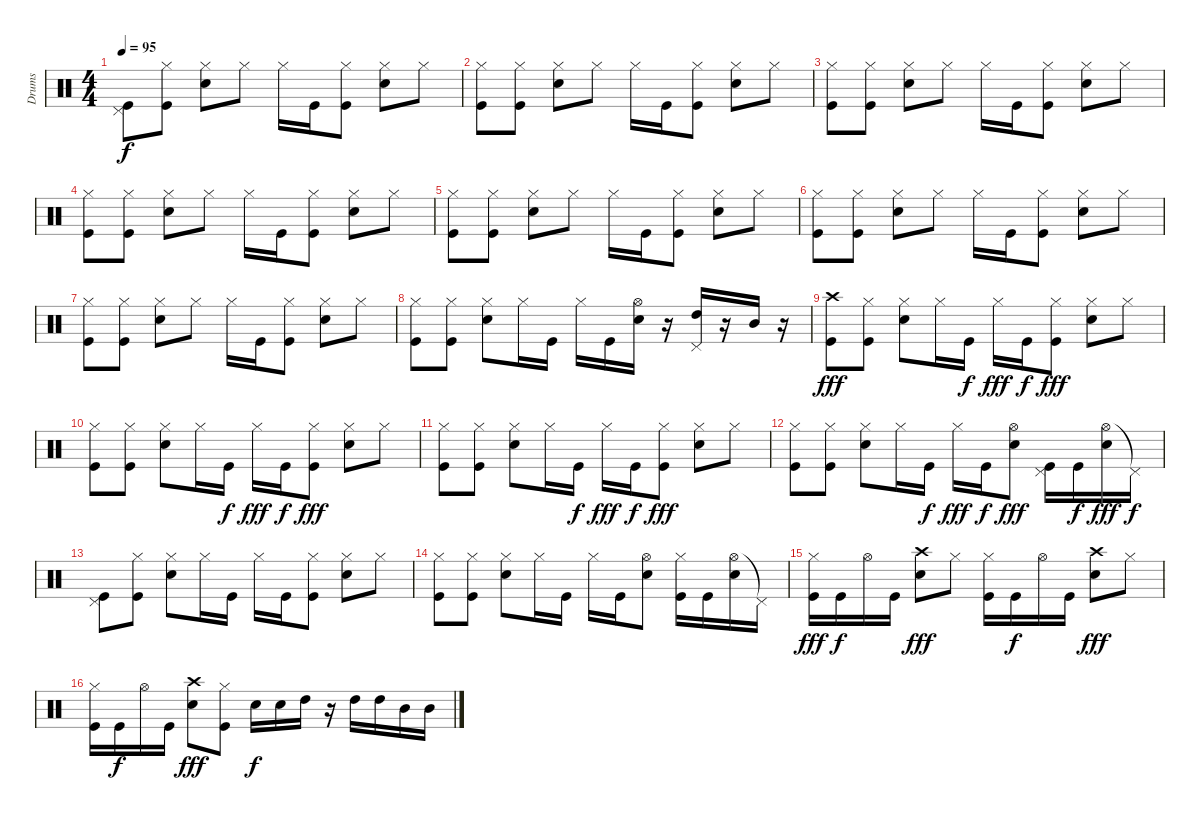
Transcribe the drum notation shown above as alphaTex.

\track ("Drums" "Drums") {instrument percussion}
\staff {score}
\articulation defaults
\ts (4 4)
\tempo 95
\clef neutral
\ks c
("Pedal Hi-Hat (hit)" "Kick (hit)").8{dy f} ("Hi-Hat (closed)" "Kick (hit)").8 ("Hi-Hat (closed)" "Electric Snare (hit)").8 "Hi-Hat (closed)".8 "Hi-Hat (closed)".16 "Kick (hit)".16 ("Hi-Hat (closed)" "Kick (hit)").8 ("Hi-Hat (closed)" "Electric Snare (hit)").8 "Hi-Hat (closed)".8 |
("Hi-Hat (closed)" "Kick (hit)").8 ("Hi-Hat (closed)" "Kick (hit)").8 ("Hi-Hat (closed)" "Electric Snare (hit)").8 "Hi-Hat (closed)".8 "Hi-Hat (closed)".16 "Kick (hit)".16 ("Hi-Hat (closed)" "Kick (hit)").8 ("Hi-Hat (closed)" "Electric Snare (hit)").8 "Hi-Hat (closed)".8 |
("Hi-Hat (closed)" "Kick (hit)").8 ("Hi-Hat (closed)" "Kick (hit)").8 ("Hi-Hat (closed)" "Electric Snare (hit)").8 "Hi-Hat (closed)".8 "Hi-Hat (closed)".16 "Kick (hit)".16 ("Hi-Hat (closed)" "Kick (hit)").8 ("Hi-Hat (closed)" "Electric Snare (hit)").8 "Hi-Hat (closed)".8 |
("Hi-Hat (closed)" "Kick (hit)").8 ("Hi-Hat (closed)" "Kick (hit)").8 ("Hi-Hat (closed)" "Electric Snare (hit)").8 "Hi-Hat (closed)".8 "Hi-Hat (closed)".16 "Kick (hit)".16 ("Hi-Hat (closed)" "Kick (hit)").8 ("Hi-Hat (closed)" "Electric Snare (hit)").8 "Hi-Hat (closed)".8 |
("Hi-Hat (closed)" "Kick (hit)").8 ("Hi-Hat (closed)" "Kick (hit)").8 ("Hi-Hat (closed)" "Electric Snare (hit)").8 "Hi-Hat (closed)".8 "Hi-Hat (closed)".16 "Kick (hit)".16 ("Hi-Hat (closed)" "Kick (hit)").8 ("Hi-Hat (closed)" "Electric Snare (hit)").8 "Hi-Hat (closed)".8 |
("Hi-Hat (closed)" "Kick (hit)").8 ("Hi-Hat (closed)" "Kick (hit)").8 ("Hi-Hat (closed)" "Electric Snare (hit)").8 "Hi-Hat (closed)".8 "Hi-Hat (closed)".16 "Kick (hit)".16 ("Hi-Hat (closed)" "Kick (hit)").8 ("Hi-Hat (closed)" "Electric Snare (hit)").8 "Hi-Hat (closed)".8 |
("Hi-Hat (closed)" "Kick (hit)").8 ("Hi-Hat (closed)" "Kick (hit)").8 ("Hi-Hat (closed)" "Electric Snare (hit)").8 "Hi-Hat (closed)".8 "Hi-Hat (closed)".16 "Kick (hit)".16 ("Hi-Hat (closed)" "Kick (hit)").8 ("Hi-Hat (closed)" "Electric Snare (hit)").8 "Hi-Hat (closed)".8 |
("Hi-Hat (closed)" "Kick (hit)").8 ("Hi-Hat (closed)" "Kick (hit)").8 ("Hi-Hat (closed)" "Electric Snare (hit)").8 "Hi-Hat (closed)".16 "Kick (hit)".16 "Hi-Hat (closed)".16 "Kick (hit)".16 ("Hi-Hat (open)" "Electric Snare (hit)").16 r.16 ("Pedal Hi-Hat (hit)" "High Tom (hit)").16 r.16 "Mid Tom (hit)".16 r.16 |
("Crash high (hit)" "Kick (hit)").8{dy fff} ("Hi-Hat (closed)" "Kick (hit)").8 ("Hi-Hat (closed)" "Electric Snare (hit)").8 "Hi-Hat (closed)".16 "Kick (hit)".16{dy f} "Hi-Hat (closed)".16{dy fff} "Kick (hit)".16{dy f} ("Hi-Hat (closed)" "Kick (hit)").8{dy fff} ("Hi-Hat (closed)" "Electric Snare (hit)").8 "Hi-Hat (closed)".8 |
("Hi-Hat (closed)" "Kick (hit)").8 ("Hi-Hat (closed)" "Kick (hit)").8 ("Hi-Hat (closed)" "Electric Snare (hit)").8 "Hi-Hat (closed)".16 "Kick (hit)".16{dy f} "Hi-Hat (closed)".16{dy fff} "Kick (hit)".16{dy f} ("Hi-Hat (closed)" "Kick (hit)").8{dy fff} ("Hi-Hat (closed)" "Electric Snare (hit)").8 "Hi-Hat (closed)".8 |
("Hi-Hat (closed)" "Kick (hit)").8 ("Hi-Hat (closed)" "Kick (hit)").8 ("Hi-Hat (closed)" "Electric Snare (hit)").8 "Hi-Hat (closed)".16 "Kick (hit)".16{dy f} "Hi-Hat (closed)".16{dy fff} "Kick (hit)".16{dy f} ("Hi-Hat (closed)" "Kick (hit)").8{dy fff} ("Hi-Hat (closed)" "Electric Snare (hit)").8 "Hi-Hat (closed)".8 |
("Hi-Hat (closed)" "Kick (hit)").8 ("Hi-Hat (closed)" "Kick (hit)").8 ("Hi-Hat (closed)" "Electric Snare (hit)").8 "Hi-Hat (closed)".16 "Kick (hit)".16{dy f} "Hi-Hat (closed)".16{dy fff} "Kick (hit)".16{dy f} ("Hi-Hat (open)" "Electric Snare (hit)").8{dy fff} ("Pedal Hi-Hat (hit)" "Kick (hit)").16 "Kick (hit)".16{dy f} ("Hi-Hat (open)" "Electric Snare (hit)").16{dy fff} "Pedal Hi-Hat (hit)"{t}.16{dy f} |
("Pedal Hi-Hat (hit)" "Kick (hit)").8 ("Hi-Hat (closed)" "Kick (hit)").8 ("Hi-Hat (closed)" "Electric Snare (hit)").8 "Hi-Hat (closed)".16 "Kick (hit)".16 "Hi-Hat (closed)".16 "Kick (hit)".16 ("Hi-Hat (closed)" "Kick (hit)").8 ("Hi-Hat (closed)" "Electric Snare (hit)").8 "Hi-Hat (closed)".8 |
("Hi-Hat (closed)" "Kick (hit)").8 ("Hi-Hat (closed)" "Kick (hit)").8 ("Hi-Hat (closed)" "Electric Snare (hit)").8 "Hi-Hat (closed)".16 "Kick (hit)".16 "Hi-Hat (closed)".16 "Kick (hit)".16 ("Hi-Hat (open)" "Electric Snare (hit)").8 ("Hi-Hat (closed)" "Kick (hit)").16 "Kick (hit)".16 ("Hi-Hat (open)" "Electric Snare (hit)").16 "Pedal Hi-Hat (hit)"{t}.16 |
("Hi-Hat (closed)" "Kick (hit)").16{dy fff} "Kick (hit)".16{dy f} "Hi-Hat (open)".16 "Kick (hit)".16 ("Crash high (hit)" "Electric Snare (hit)").8{dy fff} "Hi-Hat (closed)".8 ("Hi-Hat (closed)" "Kick (hit)").16 "Kick (hit)".16{dy f} "Hi-Hat (open)".16 "Kick (hit)".16 ("Crash high (hit)" "Electric Snare (hit)").8{dy fff} "Hi-Hat (closed)".8 |
("Hi-Hat (closed)" "Kick (hit)").16 "Kick (hit)".16{dy f} "Hi-Hat (open)".16 "Kick (hit)".16 ("Crash high (hit)" "Electric Snare (hit)").8{dy fff} ("Hi-Hat (closed)" "Kick (hit)").8 "Electric Snare (hit)".16{dy f} "Electric Snare (hit)".16 "High Tom (hit)".16 r.16 "High Tom (hit)".16 "High Tom (hit)".16 "Mid Tom (hit)".16 "Mid Tom (hit)".16
